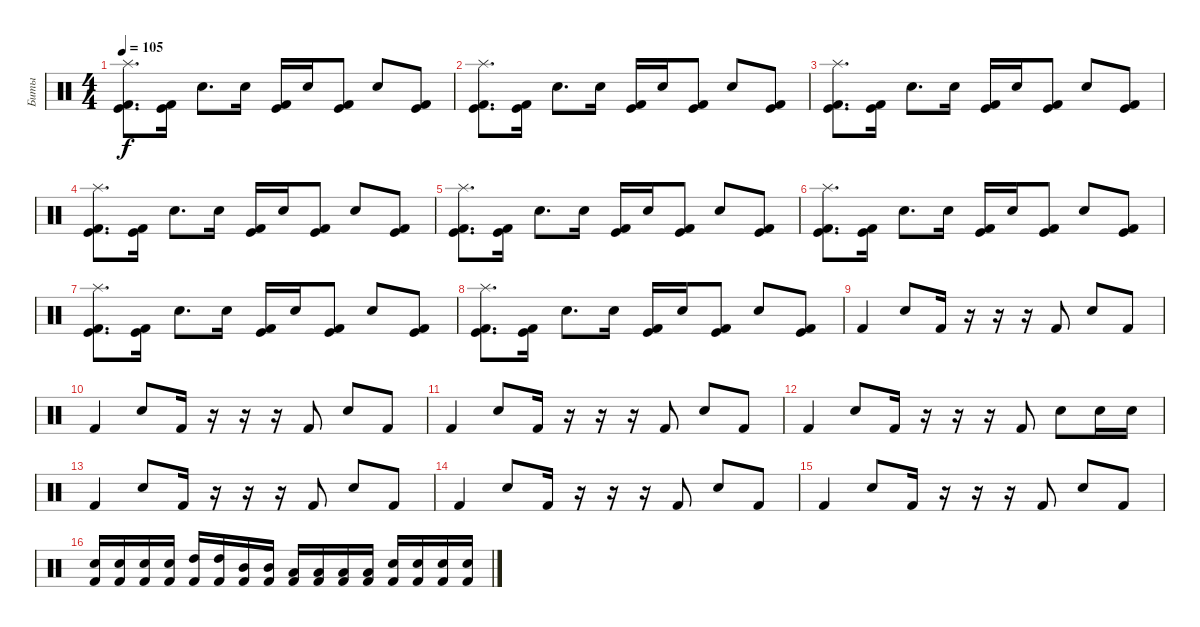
\track ("Биты" "Биты") {solo instrument percussion}
\staff {score}
\articulation defaults
\ts (4 4)
\tempo 105
\clef neutral
\ks c
("Splash (hit)" "Kick (hit)" "Kick (hit) 2").8{d dy f} ("Kick (hit)" "Kick (hit) 2").16 "Electric Snare (hit)".8{d} "Electric Snare (hit)".16 ("Kick (hit)" "Kick (hit) 2").16 "Electric Snare (hit)".16 ("Kick (hit)" "Kick (hit) 2").8 "Electric Snare (hit)".8 ("Kick (hit)" "Kick (hit) 2").8 |
("Splash (hit)" "Kick (hit)" "Kick (hit) 2").8{d} ("Kick (hit)" "Kick (hit) 2").16 "Electric Snare (hit)".8{d} "Electric Snare (hit)".16 ("Kick (hit)" "Kick (hit) 2").16 "Electric Snare (hit)".16 ("Kick (hit)" "Kick (hit) 2").8 "Electric Snare (hit)".8 ("Kick (hit)" "Kick (hit) 2").8 |
("Splash (hit)" "Kick (hit)" "Kick (hit) 2").8{d} ("Kick (hit)" "Kick (hit) 2").16 "Electric Snare (hit)".8{d} "Electric Snare (hit)".16 ("Kick (hit)" "Kick (hit) 2").16 "Electric Snare (hit)".16 ("Kick (hit)" "Kick (hit) 2").8 "Electric Snare (hit)".8 ("Kick (hit)" "Kick (hit) 2").8 |
("Splash (hit)" "Kick (hit)" "Kick (hit) 2").8{d} ("Kick (hit)" "Kick (hit) 2").16 "Electric Snare (hit)".8{d} "Electric Snare (hit)".16 ("Kick (hit)" "Kick (hit) 2").16 "Electric Snare (hit)".16 ("Kick (hit)" "Kick (hit) 2").8 "Electric Snare (hit)".8 ("Kick (hit)" "Kick (hit) 2").8 |
("Splash (hit)" "Kick (hit)" "Kick (hit) 2").8{d} ("Kick (hit)" "Kick (hit) 2").16 "Electric Snare (hit)".8{d} "Electric Snare (hit)".16 ("Kick (hit)" "Kick (hit) 2").16 "Electric Snare (hit)".16 ("Kick (hit)" "Kick (hit) 2").8 "Electric Snare (hit)".8 ("Kick (hit)" "Kick (hit) 2").8 |
("Splash (hit)" "Kick (hit)" "Kick (hit) 2").8{d} ("Kick (hit)" "Kick (hit) 2").16 "Electric Snare (hit)".8{d} "Electric Snare (hit)".16 ("Kick (hit)" "Kick (hit) 2").16 "Electric Snare (hit)".16 ("Kick (hit)" "Kick (hit) 2").8 "Electric Snare (hit)".8 ("Kick (hit)" "Kick (hit) 2").8 |
("Splash (hit)" "Kick (hit)" "Kick (hit) 2").8{d} ("Kick (hit)" "Kick (hit) 2").16 "Electric Snare (hit)".8{d} "Electric Snare (hit)".16 ("Kick (hit)" "Kick (hit) 2").16 "Electric Snare (hit)".16 ("Kick (hit)" "Kick (hit) 2").8 "Electric Snare (hit)".8 ("Kick (hit)" "Kick (hit) 2").8 |
("Splash (hit)" "Kick (hit)" "Kick (hit) 2").8{d} ("Kick (hit)" "Kick (hit) 2").16 "Electric Snare (hit)".8{d} "Electric Snare (hit)".16 ("Kick (hit)" "Kick (hit) 2").16 "Electric Snare (hit)".16 ("Kick (hit)" "Kick (hit) 2").8 "Electric Snare (hit)".8 ("Kick (hit)" "Kick (hit) 2").8 |
"Kick (hit) 2".4 "Electric Snare (hit)".8 "Kick (hit) 2".16 r.16 r.16 r.16 "Kick (hit) 2".8 "Electric Snare (hit)".8 "Kick (hit) 2".8 |
"Kick (hit) 2".4 "Electric Snare (hit)".8 "Kick (hit) 2".16 r.16 r.16 r.16 "Kick (hit) 2".8 "Electric Snare (hit)".8 "Kick (hit) 2".8 |
"Kick (hit) 2".4 "Electric Snare (hit)".8 "Kick (hit) 2".16 r.16 r.16 r.16 "Kick (hit) 2".8 "Electric Snare (hit)".8 "Kick (hit) 2".8 |
"Kick (hit) 2".4 "Electric Snare (hit)".8 "Kick (hit) 2".16 r.16 r.16 r.16 "Kick (hit) 2".8 "Electric Snare (hit)".8 "Electric Snare (hit)".16 "Electric Snare (hit)".16 |
"Kick (hit) 2".4 "Electric Snare (hit)".8 "Kick (hit) 2".16 r.16 r.16 r.16 "Kick (hit) 2".8 "Electric Snare (hit)".8 "Kick (hit) 2".8 |
"Kick (hit) 2".4 "Electric Snare (hit)".8 "Kick (hit) 2".16 r.16 r.16 r.16 "Kick (hit) 2".8 "Electric Snare (hit)".8 "Kick (hit) 2".8 |
"Kick (hit) 2".4 "Electric Snare (hit)".8 "Kick (hit) 2".16 r.16 r.16 r.16 "Kick (hit) 2".8 "Electric Snare (hit)".8 "Kick (hit) 2".8 |
("Electric Snare (hit)" "Kick (hit) 2").16 ("Electric Snare (hit)" "Kick (hit) 2").16 ("Electric Snare (hit)" "Kick (hit) 2").16 ("Electric Snare (hit)" "Kick (hit) 2").16 ("High Tom (hit)" "Kick (hit) 2").16 ("High Tom (hit)" "Kick (hit) 2").16 ("Mid Tom (hit)" "Kick (hit) 2").16 ("Mid Tom (hit)" "Kick (hit) 2").16 ("Low Tom (hit)" "Kick (hit) 2").16 ("Low Tom (hit)" "Kick (hit) 2").16 ("Low Floor Tom (hit)" "Kick (hit) 2").16 ("Low Floor Tom (hit)" "Kick (hit) 2").16 ("Electric Snare (hit)" "Kick (hit) 2").16 ("Electric Snare (hit)" "Kick (hit) 2").16 ("Electric Snare (hit)" "Kick (hit) 2").16 ("Electric Snare (hit)" "Kick (hit) 2").16
